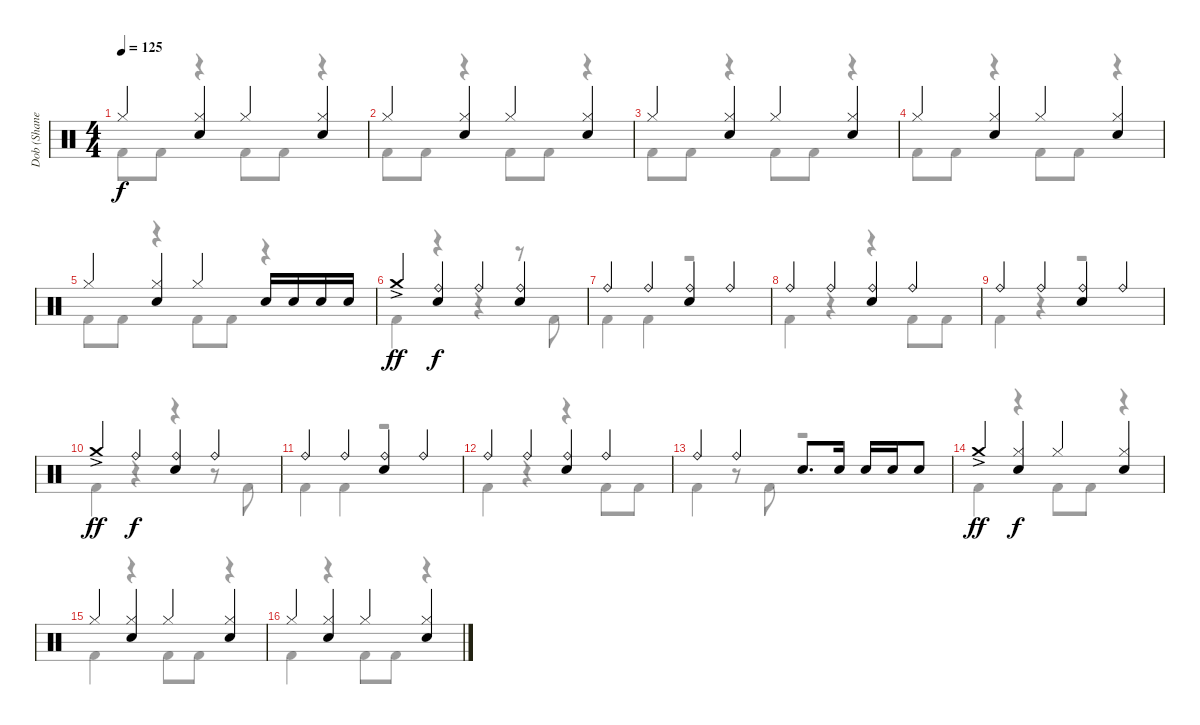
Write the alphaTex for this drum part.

\track ("Dob (Shane Gaalaas)" "Dob (Shane") {instrument percussion}
\staff {score}
\articulation defaults
\voice
\ts (4 4)
\tempo 125
\clef neutral
\ks c "Hi-Hat (closed)".4{dy f}
("Hi-Hat (closed)" "Electric Snare (hit)").4 "Hi-Hat (closed)".4 ("Hi-Hat (closed)" "Electric Snare (hit)").4 |
"Hi-Hat (closed)".4 ("Hi-Hat (closed)" "Electric Snare (hit)").4 "Hi-Hat (closed)".4 ("Hi-Hat (closed)" "Electric Snare (hit)").4 |
"Hi-Hat (closed)".4 ("Hi-Hat (closed)" "Electric Snare (hit)").4 "Hi-Hat (closed)".4 ("Hi-Hat (closed)" "Electric Snare (hit)").4 |
"Hi-Hat (closed)".4 ("Hi-Hat (closed)" "Electric Snare (hit)").4 "Hi-Hat (closed)".4 ("Hi-Hat (closed)" "Electric Snare (hit)").4 |
"Hi-Hat (closed)".4 ("Hi-Hat (closed)" "Electric Snare (hit)").4 "Hi-Hat (closed)".4 "Electric Snare (hit)".16 "Electric Snare (hit)".16 "Electric Snare (hit)".16 "Electric Snare (hit)".16 |
"Crash medium (hit)"{ac}.4{dy ff} ("Ride (bell)" "Electric Snare (hit)").4{dy f} "Ride (bell)".4 ("Ride (bell)" "Electric Snare (hit)").4 |
"Ride (bell)".4 "Ride (bell)".4 ("Ride (bell)" "Electric Snare (hit)").4 "Ride (bell)".4 |
"Ride (bell)".4 "Ride (bell)".4 ("Ride (bell)" "Electric Snare (hit)").4 "Ride (bell)".4 |
"Ride (bell)".4 "Ride (bell)".4 ("Ride (bell)" "Electric Snare (hit)").4 "Ride (bell)".4 |
"Crash medium (hit)"{ac}.4{dy ff} "Ride (bell)".4{dy f} ("Ride (bell)" "Electric Snare (hit)").4 "Ride (bell)".4 |
"Ride (bell)".4 "Ride (bell)".4 ("Ride (bell)" "Electric Snare (hit)").4 "Ride (bell)".4 |
"Ride (bell)".4 "Ride (bell)".4 ("Ride (bell)" "Electric Snare (hit)").4 "Ride (bell)".4 |
"Ride (bell)".4 "Ride (bell)".4 "Electric Snare (hit)".8{d} "Electric Snare (hit)".16 "Electric Snare (hit)".16 "Electric Snare (hit)".16 "Electric Snare (hit)".8 |
"Crash medium (hit)"{ac}.4{dy ff} ("Hi-Hat (closed)" "Electric Snare (hit)").4{dy f} "Hi-Hat (closed)".4 ("Hi-Hat (closed)" "Electric Snare (hit)").4 |
"Hi-Hat (closed)".4 ("Hi-Hat (closed)" "Electric Snare (hit)").4 "Hi-Hat (closed)".4 ("Hi-Hat (closed)" "Electric Snare (hit)").4 |
"Hi-Hat (closed)".4 ("Hi-Hat (closed)" "Electric Snare (hit)").4 "Hi-Hat (closed)".4 ("Hi-Hat (closed)" "Electric Snare (hit)").4
\voice
\clef neutral
\ottava regular
\simile none
\ks c "Kick (hit) 2".8{dy f} "Kick (hit) 2".8
r.4 "Kick (hit) 2".8 "Kick (hit) 2".8 r.4 |
"Kick (hit) 2".8 "Kick (hit) 2".8 r.4 "Kick (hit) 2".8 "Kick (hit) 2".8 r.4 |
"Kick (hit) 2".8 "Kick (hit) 2".8 r.4 "Kick (hit) 2".8 "Kick (hit) 2".8 r.4 |
"Kick (hit) 2".8 "Kick (hit) 2".8 r.4 "Kick (hit) 2".8 "Kick (hit) 2".8 r.4 |
"Kick (hit) 2".8 "Kick (hit) 2".8 r.4 "Kick (hit) 2".8 "Kick (hit) 2".8 r.4 |
"Kick (hit) 2".4 r.4 r.4 r.8 "Kick (hit) 2".8 |
"Kick (hit) 2".4 "Kick (hit) 2".4 r.2 |
"Kick (hit) 2".4 r.4 r.4 "Kick (hit) 2".8 "Kick (hit) 2".8 |
"Kick (hit) 2".4 r.4 r.2 |
"Kick (hit) 2".4 r.4 r.4 r.8 "Kick (hit) 2".8 |
"Kick (hit) 2".4 "Kick (hit) 2".4 r.2 |
"Kick (hit) 2".4 r.4 r.4 "Kick (hit) 2".8 "Kick (hit) 2".8 |
"Kick (hit) 2".4 r.8 "Kick (hit) 2".8 r.2 |
"Kick (hit) 2".4 r.4 "Kick (hit) 2".8 "Kick (hit) 2".8 r.4 |
"Kick (hit) 2".4 r.4 "Kick (hit) 2".8 "Kick (hit) 2".8 r.4 |
"Kick (hit) 2".4 r.4 "Kick (hit) 2".8 "Kick (hit) 2".8 r.4
